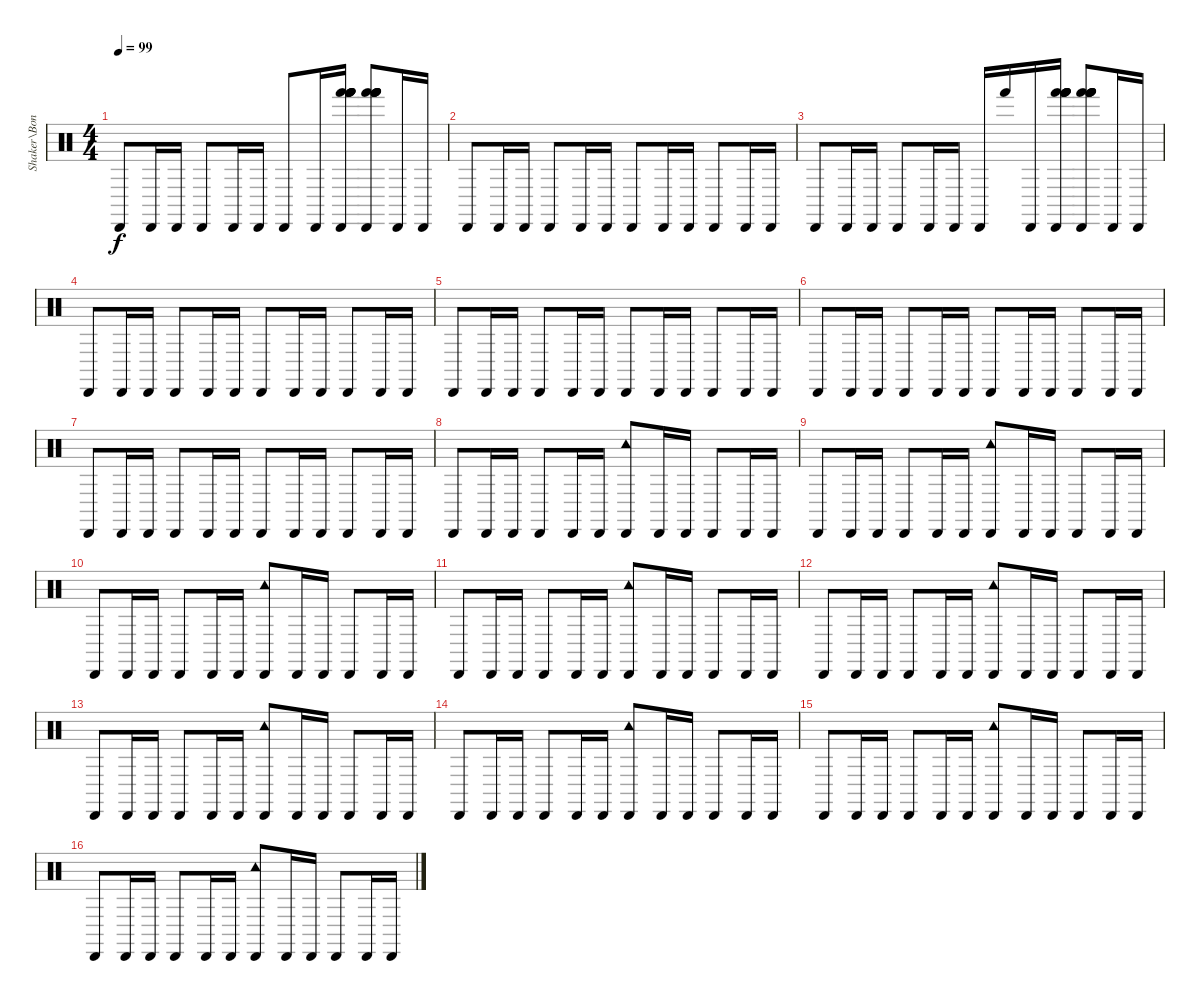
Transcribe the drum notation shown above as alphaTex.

\track ("Shaker\\Bongos" "Shaker\\Bon") {instrument percussion}
\staff {score}
\articulation defaults
\ts (4 4)
\tempo 99
\clef neutral
\ks c "Cabasa (hit)".8{dy f} "Cabasa (hit)".16 "Cabasa (hit)".16 "Cabasa (hit)".8 "Cabasa (hit)".16 "Cabasa (hit)".16 "Cabasa (hit)".8 "Cabasa (hit)".16
("Hand (hit)" "Hand (hit)" "Hand (hit)" "Cabasa (hit)" "Hand (hit)" "Hand (hit)").16 ("Hand (hit)" "Hand (hit)" "Hand (hit)" "Cabasa (hit)" "Hand (hit)" "Hand (hit)").8 "Cabasa (hit)".16 "Cabasa (hit)".16 |
"Cabasa (hit)".8 "Cabasa (hit)".16 "Cabasa (hit)".16 "Cabasa (hit)".8 "Cabasa (hit)".16 "Cabasa (hit)".16 "Cabasa (hit)".8 "Cabasa (hit)".16 "Cabasa (hit)".16 "Cabasa (hit)".8 "Cabasa (hit)".16 "Cabasa (hit)".16 |
"Cabasa (hit)".8 "Cabasa (hit)".16 "Cabasa (hit)".16 "Cabasa (hit)".8 "Cabasa (hit)".16 "Cabasa (hit)".16 "Cabasa (hit)".16 "Hand (hit)".16 "Cabasa (hit)".16 ("Hand (hit)" "Hand (hit)" "Hand (hit)" "Cabasa (hit)" "Hand (hit)" "Hand (hit)").16 ("Hand (hit)" "Hand (hit)" "Hand (hit)" "Cabasa (hit)" "Hand (hit)" "Hand (hit)").8 "Cabasa (hit)".16 "Cabasa (hit)".16 |
"Cabasa (hit)".8 "Cabasa (hit)".16 "Cabasa (hit)".16 "Cabasa (hit)".8 "Cabasa (hit)".16 "Cabasa (hit)".16 "Cabasa (hit)".8 "Cabasa (hit)".16 "Cabasa (hit)".16 "Cabasa (hit)".8 "Cabasa (hit)".16 "Cabasa (hit)".16 |
"Cabasa (hit)".8 "Cabasa (hit)".16 "Cabasa (hit)".16 "Cabasa (hit)".8 "Cabasa (hit)".16 "Cabasa (hit)".16 "Cabasa (hit)".8 "Cabasa (hit)".16 "Cabasa (hit)".16 "Cabasa (hit)".8 "Cabasa (hit)".16 "Cabasa (hit)".16 |
"Cabasa (hit)".8 "Cabasa (hit)".16 "Cabasa (hit)".16 "Cabasa (hit)".8 "Cabasa (hit)".16 "Cabasa (hit)".16 "Cabasa (hit)".8 "Cabasa (hit)".16 "Cabasa (hit)".16 "Cabasa (hit)".8 "Cabasa (hit)".16 "Cabasa (hit)".16 |
"Cabasa (hit)".8 "Cabasa (hit)".16 "Cabasa (hit)".16 "Cabasa (hit)".8 "Cabasa (hit)".16 "Cabasa (hit)".16 "Cabasa (hit)".8 "Cabasa (hit)".16 "Cabasa (hit)".16 "Cabasa (hit)".8 "Cabasa (hit)".16 "Cabasa (hit)".16 |
"Cabasa (hit)".8 "Cabasa (hit)".16 "Cabasa (hit)".16 "Cabasa (hit)".8 "Cabasa (hit)".16 "Cabasa (hit)".16 ("Tambourine (hit)" "Cabasa (hit)").8 "Cabasa (hit)".16 "Cabasa (hit)".16 "Cabasa (hit)".8 "Cabasa (hit)".16 "Cabasa (hit)".16 |
"Cabasa (hit)".8 "Cabasa (hit)".16 "Cabasa (hit)".16 "Cabasa (hit)".8 "Cabasa (hit)".16 "Cabasa (hit)".16 ("Cabasa (hit)" "Tambourine (hit)").8 "Cabasa (hit)".16 "Cabasa (hit)".16 "Cabasa (hit)".8 "Cabasa (hit)".16 "Cabasa (hit)".16 |
"Cabasa (hit)".8 "Cabasa (hit)".16 "Cabasa (hit)".16 "Cabasa (hit)".8 "Cabasa (hit)".16 "Cabasa (hit)".16 ("Cabasa (hit)" "Tambourine (hit)").8 "Cabasa (hit)".16 "Cabasa (hit)".16 "Cabasa (hit)".8 "Cabasa (hit)".16 "Cabasa (hit)".16 |
"Cabasa (hit)".8 "Cabasa (hit)".16 "Cabasa (hit)".16 "Cabasa (hit)".8 "Cabasa (hit)".16 "Cabasa (hit)".16 ("Cabasa (hit)" "Tambourine (hit)").8 "Cabasa (hit)".16 "Cabasa (hit)".16 "Cabasa (hit)".8 "Cabasa (hit)".16 "Cabasa (hit)".16 |
"Cabasa (hit)".8 "Cabasa (hit)".16 "Cabasa (hit)".16 "Cabasa (hit)".8 "Cabasa (hit)".16 "Cabasa (hit)".16 ("Cabasa (hit)" "Tambourine (hit)").8 "Cabasa (hit)".16 "Cabasa (hit)".16 "Cabasa (hit)".8 "Cabasa (hit)".16 "Cabasa (hit)".16 |
"Cabasa (hit)".8 "Cabasa (hit)".16 "Cabasa (hit)".16 "Cabasa (hit)".8 "Cabasa (hit)".16 "Cabasa (hit)".16 ("Cabasa (hit)" "Tambourine (hit)").8 "Cabasa (hit)".16 "Cabasa (hit)".16 "Cabasa (hit)".8 "Cabasa (hit)".16 "Cabasa (hit)".16 |
"Cabasa (hit)".8 "Cabasa (hit)".16 "Cabasa (hit)".16 "Cabasa (hit)".8 "Cabasa (hit)".16 "Cabasa (hit)".16 ("Cabasa (hit)" "Tambourine (hit)").8 "Cabasa (hit)".16 "Cabasa (hit)".16 "Cabasa (hit)".8 "Cabasa (hit)".16 "Cabasa (hit)".16 |
"Cabasa (hit)".8 "Cabasa (hit)".16 "Cabasa (hit)".16 "Cabasa (hit)".8 "Cabasa (hit)".16 "Cabasa (hit)".16 ("Cabasa (hit)" "Tambourine (hit)").8 "Cabasa (hit)".16 "Cabasa (hit)".16 "Cabasa (hit)".8 "Cabasa (hit)".16 "Cabasa (hit)".16 |
"Cabasa (hit)".8 "Cabasa (hit)".16 "Cabasa (hit)".16 "Cabasa (hit)".8 "Cabasa (hit)".16 "Cabasa (hit)".16 ("Cabasa (hit)" "Tambourine (hit)").8 "Cabasa (hit)".16 "Cabasa (hit)".16 "Cabasa (hit)".8 "Cabasa (hit)".16 "Cabasa (hit)".16
